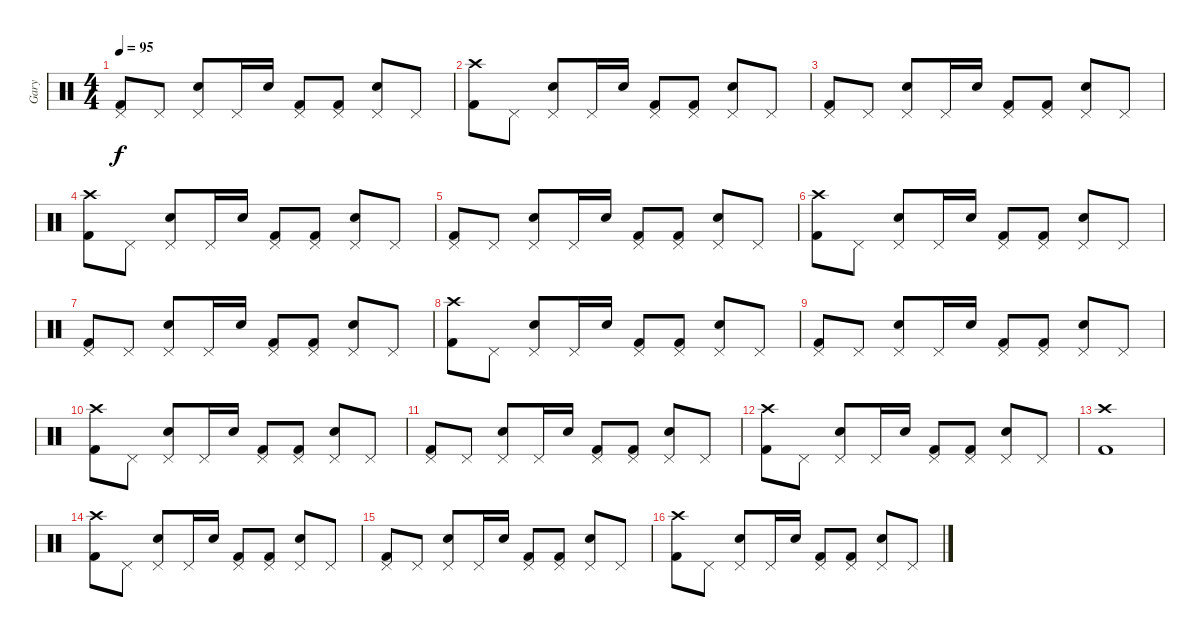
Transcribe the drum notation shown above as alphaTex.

\track ("Gary" "Gary") {instrument percussion}
\staff {score}
\articulation defaults
\ts (4 4)
\tempo 95
\clef neutral
\ks c
("Pedal Hi-Hat (hit)" "Kick (hit) 2").8{dy f} "Pedal Hi-Hat (hit)".8 ("Pedal Hi-Hat (hit)" "Electric Snare (hit)").8 "Pedal Hi-Hat (hit)".16 "Electric Snare (hit)".16 ("Pedal Hi-Hat (hit)" "Kick (hit) 2").8 ("Pedal Hi-Hat (hit)" "Kick (hit) 2").8 ("Pedal Hi-Hat (hit)" "Electric Snare (hit)").8 "Pedal Hi-Hat (hit)".8 |
("Crash high (hit)" "Kick (hit) 2").8 "Pedal Hi-Hat (hit)".8 ("Pedal Hi-Hat (hit)" "Electric Snare (hit)").8 "Pedal Hi-Hat (hit)".16 "Electric Snare (hit)".16 ("Pedal Hi-Hat (hit)" "Kick (hit) 2").8 ("Pedal Hi-Hat (hit)" "Kick (hit) 2").8 ("Pedal Hi-Hat (hit)" "Electric Snare (hit)").8 "Pedal Hi-Hat (hit)".8 |
("Pedal Hi-Hat (hit)" "Kick (hit) 2").8 "Pedal Hi-Hat (hit)".8 ("Pedal Hi-Hat (hit)" "Electric Snare (hit)").8 "Pedal Hi-Hat (hit)".16 "Electric Snare (hit)".16 ("Pedal Hi-Hat (hit)" "Kick (hit) 2").8 ("Pedal Hi-Hat (hit)" "Kick (hit) 2").8 ("Pedal Hi-Hat (hit)" "Electric Snare (hit)").8 "Pedal Hi-Hat (hit)".8 |
("Crash high (hit)" "Kick (hit) 2").8 "Pedal Hi-Hat (hit)".8 ("Pedal Hi-Hat (hit)" "Electric Snare (hit)").8 "Pedal Hi-Hat (hit)".16 "Electric Snare (hit)".16 ("Pedal Hi-Hat (hit)" "Kick (hit) 2").8 ("Pedal Hi-Hat (hit)" "Kick (hit) 2").8 ("Pedal Hi-Hat (hit)" "Electric Snare (hit)").8 "Pedal Hi-Hat (hit)".8 |
("Pedal Hi-Hat (hit)" "Kick (hit) 2").8 "Pedal Hi-Hat (hit)".8 ("Pedal Hi-Hat (hit)" "Electric Snare (hit)").8 "Pedal Hi-Hat (hit)".16 "Electric Snare (hit)".16 ("Pedal Hi-Hat (hit)" "Kick (hit) 2").8 ("Pedal Hi-Hat (hit)" "Kick (hit) 2").8 ("Pedal Hi-Hat (hit)" "Electric Snare (hit)").8 "Pedal Hi-Hat (hit)".8 |
("Crash high (hit)" "Kick (hit) 2").8 "Pedal Hi-Hat (hit)".8 ("Pedal Hi-Hat (hit)" "Electric Snare (hit)").8 "Pedal Hi-Hat (hit)".16 "Electric Snare (hit)".16 ("Pedal Hi-Hat (hit)" "Kick (hit) 2").8 ("Pedal Hi-Hat (hit)" "Kick (hit) 2").8 ("Pedal Hi-Hat (hit)" "Electric Snare (hit)").8 "Pedal Hi-Hat (hit)".8 |
("Pedal Hi-Hat (hit)" "Kick (hit) 2").8 "Pedal Hi-Hat (hit)".8 ("Pedal Hi-Hat (hit)" "Electric Snare (hit)").8 "Pedal Hi-Hat (hit)".16 "Electric Snare (hit)".16 ("Pedal Hi-Hat (hit)" "Kick (hit) 2").8 ("Pedal Hi-Hat (hit)" "Kick (hit) 2").8 ("Pedal Hi-Hat (hit)" "Electric Snare (hit)").8 "Pedal Hi-Hat (hit)".8 |
("Crash high (hit)" "Kick (hit) 2").8 "Pedal Hi-Hat (hit)".8 ("Pedal Hi-Hat (hit)" "Electric Snare (hit)").8 "Pedal Hi-Hat (hit)".16 "Electric Snare (hit)".16 ("Pedal Hi-Hat (hit)" "Kick (hit) 2").8 ("Pedal Hi-Hat (hit)" "Kick (hit) 2").8 ("Pedal Hi-Hat (hit)" "Electric Snare (hit)").8 "Pedal Hi-Hat (hit)".8 |
("Pedal Hi-Hat (hit)" "Kick (hit) 2").8 "Pedal Hi-Hat (hit)".8 ("Pedal Hi-Hat (hit)" "Electric Snare (hit)").8 "Pedal Hi-Hat (hit)".16 "Electric Snare (hit)".16 ("Pedal Hi-Hat (hit)" "Kick (hit) 2").8 ("Pedal Hi-Hat (hit)" "Kick (hit) 2").8 ("Pedal Hi-Hat (hit)" "Electric Snare (hit)").8 "Pedal Hi-Hat (hit)".8 |
("Crash high (hit)" "Kick (hit) 2").8 "Pedal Hi-Hat (hit)".8 ("Pedal Hi-Hat (hit)" "Electric Snare (hit)").8 "Pedal Hi-Hat (hit)".16 "Electric Snare (hit)".16 ("Pedal Hi-Hat (hit)" "Kick (hit) 2").8 ("Pedal Hi-Hat (hit)" "Kick (hit) 2").8 ("Pedal Hi-Hat (hit)" "Electric Snare (hit)").8 "Pedal Hi-Hat (hit)".8 |
("Pedal Hi-Hat (hit)" "Kick (hit) 2").8 "Pedal Hi-Hat (hit)".8 ("Pedal Hi-Hat (hit)" "Electric Snare (hit)").8 "Pedal Hi-Hat (hit)".16 "Electric Snare (hit)".16 ("Pedal Hi-Hat (hit)" "Kick (hit) 2").8 ("Pedal Hi-Hat (hit)" "Kick (hit) 2").8 ("Pedal Hi-Hat (hit)" "Electric Snare (hit)").8 "Pedal Hi-Hat (hit)".8 |
("Crash high (hit)" "Kick (hit) 2").8 "Pedal Hi-Hat (hit)".8 ("Pedal Hi-Hat (hit)" "Electric Snare (hit)").8 "Pedal Hi-Hat (hit)".16 "Electric Snare (hit)".16 ("Pedal Hi-Hat (hit)" "Kick (hit) 2").8 ("Pedal Hi-Hat (hit)" "Kick (hit) 2").8 ("Pedal Hi-Hat (hit)" "Electric Snare (hit)").8 "Pedal Hi-Hat (hit)".8 |
("Crash high (hit)" "Kick (hit) 2").1 |
("Crash high (hit)" "Kick (hit) 2").8 "Pedal Hi-Hat (hit)".8 ("Pedal Hi-Hat (hit)" "Electric Snare (hit)").8 "Pedal Hi-Hat (hit)".16 "Electric Snare (hit)".16 ("Pedal Hi-Hat (hit)" "Kick (hit) 2").8 ("Pedal Hi-Hat (hit)" "Kick (hit) 2").8 ("Pedal Hi-Hat (hit)" "Electric Snare (hit)").8 "Pedal Hi-Hat (hit)".8 |
("Pedal Hi-Hat (hit)" "Kick (hit) 2").8 "Pedal Hi-Hat (hit)".8 ("Pedal Hi-Hat (hit)" "Electric Snare (hit)").8 "Pedal Hi-Hat (hit)".16 "Electric Snare (hit)".16 ("Pedal Hi-Hat (hit)" "Kick (hit) 2").8 ("Pedal Hi-Hat (hit)" "Kick (hit) 2").8 ("Pedal Hi-Hat (hit)" "Electric Snare (hit)").8 "Pedal Hi-Hat (hit)".8 |
("Crash high (hit)" "Kick (hit) 2").8 "Pedal Hi-Hat (hit)".8 ("Pedal Hi-Hat (hit)" "Electric Snare (hit)").8 "Pedal Hi-Hat (hit)".16 "Electric Snare (hit)".16 ("Pedal Hi-Hat (hit)" "Kick (hit) 2").8 ("Pedal Hi-Hat (hit)" "Kick (hit) 2").8 ("Pedal Hi-Hat (hit)" "Electric Snare (hit)").8 "Pedal Hi-Hat (hit)".8
